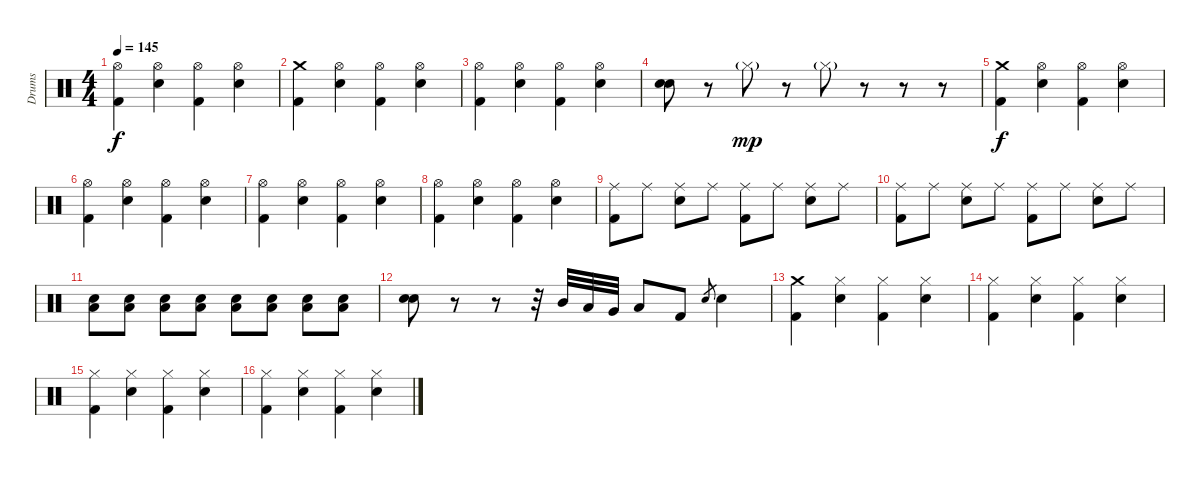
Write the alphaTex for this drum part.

\track ("Drums" "Drums") {instrument percussion}
\staff {score}
\articulation defaults
\ts (4 4)
\tempo 145
\clef neutral
\ks c
("Hi-Hat (open)" "Kick (hit) 2").4{dy f} ("Hi-Hat (open)" "Snare (hit) 2").4 ("Hi-Hat (open)" "Kick (hit) 2").4 ("Hi-Hat (open)" "Snare (hit) 2").4 |
("Crash medium (hit)" "Kick (hit) 2").4 ("Hi-Hat (open)" "Snare (hit) 2").4 ("Hi-Hat (open)" "Kick (hit) 2").4 ("Hi-Hat (open)" "Snare (hit) 2").4 |
("Hi-Hat (open)" "Kick (hit) 2").4 ("Hi-Hat (open)" "Snare (hit) 2").4 ("Hi-Hat (open)" "Kick (hit) 2").4 ("Hi-Hat (open)" "Snare (hit) 2").4 |
("Snare (hit) 2" "Electric Snare (hit)").8 r.8 "Hi-Hat (closed)"{g}.8{dy mp} r.8 "Hi-Hat (closed)"{g}.8 r.8 r.8 r.8 |
("Crash medium (hit)" "Kick (hit) 2").4{dy f} ("Hi-Hat (open)" "Snare (hit) 2").4 ("Hi-Hat (open)" "Kick (hit) 2").4 ("Hi-Hat (open)" "Snare (hit) 2").4 |
("Hi-Hat (open)" "Kick (hit) 2").4 ("Hi-Hat (open)" "Snare (hit) 2").4 ("Hi-Hat (open)" "Kick (hit) 2").4 ("Hi-Hat (open)" "Snare (hit) 2").4 |
("Hi-Hat (open)" "Kick (hit) 2").4 ("Hi-Hat (open)" "Snare (hit) 2").4 ("Hi-Hat (open)" "Kick (hit) 2").4 ("Hi-Hat (open)" "Snare (hit) 2").4 |
("Hi-Hat (open)" "Kick (hit) 2").4 ("Hi-Hat (open)" "Snare (hit) 2").4 ("Hi-Hat (open)" "Kick (hit) 2").4 ("Hi-Hat (open)" "Snare (hit) 2").4 |
("Ride (middle)" "Kick (hit) 2").8 "Ride (middle)".8 ("Ride (middle)" "Snare (hit) 2").8 "Ride (middle)".8 ("Ride (middle)" "Kick (hit) 2").8 "Ride (middle)".8 ("Ride (middle)" "Snare (hit) 2").8 "Ride (middle)".8 |
("Ride (middle)" "Kick (hit) 2").8 "Ride (middle)".8 ("Ride (middle)" "Snare (hit) 2").8 "Ride (middle)".8 ("Ride (middle)" "Kick (hit) 2").8 "Ride (middle)".8 ("Ride (middle)" "Snare (hit) 2").8 "Ride (middle)".8 |
("Snare (hit) 2" "Low Floor Tom (hit)").8 ("Snare (hit) 2" "Low Floor Tom (hit)").8 ("Snare (hit) 2" "Low Floor Tom (hit)").8 ("Snare (hit) 2" "Low Floor Tom (hit)").8 ("Snare (hit) 2" "Low Floor Tom (hit)").8 ("Snare (hit) 2" "Low Floor Tom (hit)").8 ("Snare (hit) 2" "Low Floor Tom (hit)").8 ("Snare (hit) 2" "Low Floor Tom (hit)").8 |
("Snare (hit) 2" "Electric Snare (hit)").8 r.8 r.8 r.32 "Mid Tom (hit)".32 "Low Tom (hit)".32 "Very Low Tom (hit)".32 "Low Floor Tom (hit)".8 "Kick (hit) 2".8 "Electric Snare (hit)".8{gr} "Snare (hit) 2".4 |
("Crash medium (hit)" "Kick (hit) 2").4 ("Hi-Hat (closed)" "Snare (hit) 2").4 ("Hi-Hat (closed)" "Kick (hit) 2").4 ("Hi-Hat (closed)" "Snare (hit) 2").4 |
("Hi-Hat (closed)" "Kick (hit) 2").4 ("Hi-Hat (closed)" "Snare (hit) 2").4 ("Hi-Hat (closed)" "Kick (hit) 2").4 ("Hi-Hat (closed)" "Snare (hit) 2").4 |
("Hi-Hat (closed)" "Kick (hit) 2").4 ("Hi-Hat (closed)" "Snare (hit) 2").4 ("Hi-Hat (closed)" "Kick (hit) 2").4 ("Hi-Hat (closed)" "Snare (hit) 2").4 |
("Hi-Hat (closed)" "Kick (hit) 2").4 ("Hi-Hat (closed)" "Snare (hit) 2").4 ("Hi-Hat (closed)" "Kick (hit) 2").4 ("Hi-Hat (closed)" "Snare (hit) 2").4
